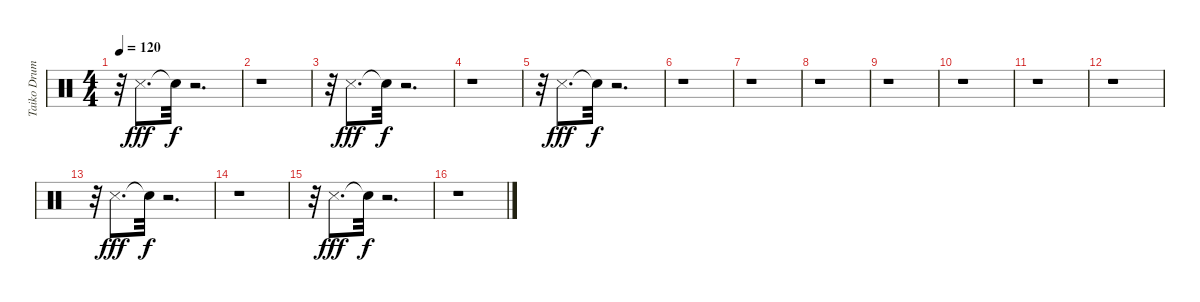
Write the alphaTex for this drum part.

\track ("Taiko Drum" "Taiko Drum") {instrument percussion}
\staff {score}
\articulation defaults
\ts (4 4)
\tempo 120
\clef neutral
\ks c
r.32{dy f} "Metronome (hit)".8{d dy fff} "Snare (hit)"{t}.32{dy f} r.2{d} |
r.1 |
r.32 "Metronome (hit)".8{d dy fff} "Snare (hit)"{t}.32{dy f} r.2{d} |
r.1 |
r.32 "Metronome (hit)".8{d dy fff} "Snare (hit)"{t}.32{dy f} r.2{d} |
r.1 |
r.1 |
r.1 |
r.1 |
r.1 |
r.1 |
r.1 |
r.32 "Metronome (hit)".8{d dy fff} "Snare (hit)"{t}.32{dy f} r.2{d} |
r.1 |
r.32 "Metronome (hit)".8{d dy fff} "Snare (hit)"{t}.32{dy f} r.2{d} |
r.1
